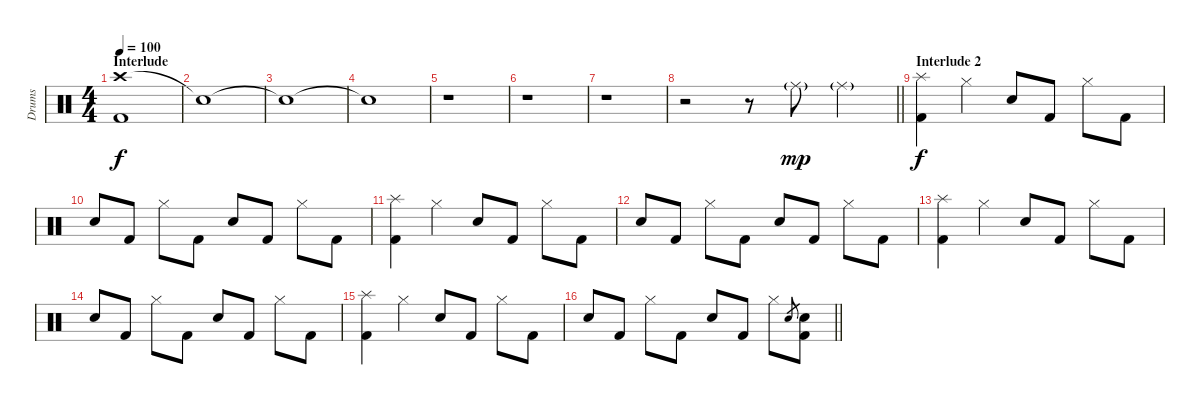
\track ("Drums" "Drums") {instrument percussion}
\staff {score}
\articulation defaults
\ts (4 4)
\section ("" "Interlude")
\tempo 100
\clef neutral
\ks c
("Crash high (hit)" "Kick (hit) 2").1{dy f} |
"Snare (hit)"{t}.1 |
"Snare (hit)"{t}.1 |
"Snare (hit)"{t}.1 |
r.1 |
r.1 |
r.1 |
\barLineRight lightlight
r.2 r.8 "Ride (middle)"{g}.8{dy mp} "Ride (middle)"{g}.4 |
\section ("" "Interlude 2")
("Splash (hit)" "Kick (hit) 2").4{dy f} "Hi-Hat (closed)".4 "Snare (hit) 2".8 "Kick (hit) 2".8 "Hi-Hat (closed)".8 "Kick (hit) 2".8 |
"Snare (hit) 2".8 "Kick (hit) 2".8 "Hi-Hat (closed)".8 "Kick (hit) 2".8 "Snare (hit) 2".8 "Kick (hit) 2".8 "Hi-Hat (closed)".8 "Kick (hit) 2".8 |
("Splash (hit)" "Kick (hit) 2").4 "Hi-Hat (closed)".4 "Snare (hit) 2".8 "Kick (hit) 2".8 "Hi-Hat (closed)".8 "Kick (hit) 2".8 |
"Snare (hit) 2".8 "Kick (hit) 2".8 "Hi-Hat (closed)".8 "Kick (hit) 2".8 "Snare (hit) 2".8 "Kick (hit) 2".8 "Hi-Hat (closed)".8 "Kick (hit) 2".8 |
("Splash (hit)" "Kick (hit) 2").4 "Hi-Hat (closed)".4 "Snare (hit) 2".8 "Kick (hit) 2".8 "Hi-Hat (closed)".8 "Kick (hit) 2".8 |
"Snare (hit) 2".8 "Kick (hit) 2".8 "Hi-Hat (closed)".8 "Kick (hit) 2".8 "Snare (hit) 2".8 "Kick (hit) 2".8 "Hi-Hat (closed)".8 "Kick (hit) 2".8 |
("Splash (hit)" "Kick (hit) 2").4 "Hi-Hat (closed)".4 "Snare (hit) 2".8 "Kick (hit) 2".8 "Hi-Hat (closed)".8 "Kick (hit) 2".8 |
\barLineRight lightlight "Snare (hit) 2".8 "Kick (hit) 2".8 "Hi-Hat (closed)".8 "Kick (hit) 2".8 "Snare (hit) 2".8 "Kick (hit) 2".8 "Hi-Hat (closed)".8 "Snare (hit) 2".8{gr}
("Snare (hit) 2" "Kick (hit) 2").8
